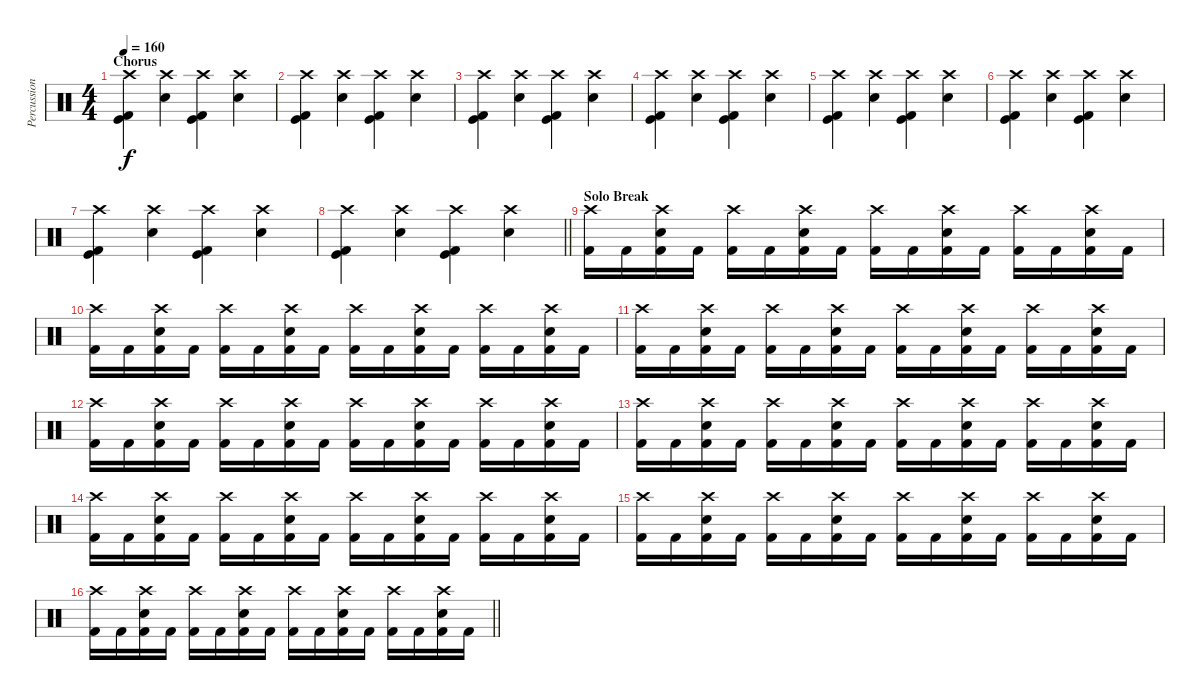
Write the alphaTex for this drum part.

\track ("Percussion" "Percussion") {instrument percussion}
\staff {score}
\articulation defaults
\ts (4 4)
\section ("" "Chorus")
\tempo 160
\clef neutral
\ks c
("Crash high (hit)" "Kick (hit)" "Kick (hit) 2").4{dy f} ("Crash high (hit)" "Snare (hit) 2").4 ("Crash high (hit)" "Kick (hit)" "Kick (hit) 2").4 ("Crash high (hit)" "Snare (hit) 2").4 |
("Crash high (hit)" "Kick (hit)" "Kick (hit) 2").4 ("Crash high (hit)" "Snare (hit) 2").4 ("Crash high (hit)" "Kick (hit)" "Kick (hit) 2").4 ("Crash high (hit)" "Snare (hit) 2").4 |
("Crash high (hit)" "Kick (hit)" "Kick (hit) 2").4 ("Crash high (hit)" "Snare (hit) 2").4 ("Crash high (hit)" "Kick (hit)" "Kick (hit) 2").4 ("Crash high (hit)" "Snare (hit) 2").4 |
("Crash high (hit)" "Kick (hit)" "Kick (hit) 2").4 ("Crash high (hit)" "Snare (hit) 2").4 ("Crash high (hit)" "Kick (hit)" "Kick (hit) 2").4 ("Crash high (hit)" "Snare (hit) 2").4 |
("Crash high (hit)" "Kick (hit)" "Kick (hit) 2").4 ("Crash high (hit)" "Snare (hit) 2").4 ("Crash high (hit)" "Kick (hit)" "Kick (hit) 2").4 ("Crash high (hit)" "Snare (hit) 2").4 |
("Crash high (hit)" "Kick (hit)" "Kick (hit) 2").4 ("Crash high (hit)" "Snare (hit) 2").4 ("Crash high (hit)" "Kick (hit)" "Kick (hit) 2").4 ("Crash high (hit)" "Snare (hit) 2").4 |
("Crash high (hit)" "Kick (hit)" "Kick (hit) 2").4 ("Crash high (hit)" "Snare (hit) 2").4 ("Crash high (hit)" "Kick (hit)" "Kick (hit) 2").4 ("Crash high (hit)" "Snare (hit) 2").4 |
\barLineRight lightlight
("Crash high (hit)" "Kick (hit)" "Kick (hit) 2").4 ("Crash high (hit)" "Snare (hit) 2").4 ("Crash high (hit)" "Kick (hit)" "Kick (hit) 2").4 ("Crash high (hit)" "Snare (hit) 2").4 |
\section ("" "Solo Break")
("Crash high (hit)" "Kick (hit) 2").16 "Kick (hit) 2".16 ("Crash high (hit)" "Snare (hit) 2" "Kick (hit) 2").16 "Kick (hit) 2".16 ("Crash high (hit)" "Kick (hit) 2").16 "Kick (hit) 2".16 ("Crash high (hit)" "Snare (hit) 2" "Kick (hit) 2").16 "Kick (hit) 2".16 ("Crash high (hit)" "Kick (hit) 2").16 "Kick (hit) 2".16 ("Crash high (hit)" "Snare (hit) 2" "Kick (hit) 2").16 "Kick (hit) 2".16 ("Crash high (hit)" "Kick (hit) 2").16 "Kick (hit) 2".16 ("Crash high (hit)" "Snare (hit) 2" "Kick (hit) 2").16 "Kick (hit) 2".16 |
("Crash high (hit)" "Kick (hit) 2").16 "Kick (hit) 2".16 ("Crash high (hit)" "Snare (hit) 2" "Kick (hit) 2").16 "Kick (hit) 2".16 ("Crash high (hit)" "Kick (hit) 2").16 "Kick (hit) 2".16 ("Crash high (hit)" "Snare (hit) 2" "Kick (hit) 2").16 "Kick (hit) 2".16 ("Crash high (hit)" "Kick (hit) 2").16 "Kick (hit) 2".16 ("Crash high (hit)" "Snare (hit) 2" "Kick (hit) 2").16 "Kick (hit) 2".16 ("Crash high (hit)" "Kick (hit) 2").16 "Kick (hit) 2".16 ("Crash high (hit)" "Snare (hit) 2" "Kick (hit) 2").16 "Kick (hit) 2".16 |
("Crash high (hit)" "Kick (hit) 2").16 "Kick (hit) 2".16 ("Crash high (hit)" "Snare (hit) 2" "Kick (hit) 2").16 "Kick (hit) 2".16 ("Crash high (hit)" "Kick (hit) 2").16 "Kick (hit) 2".16 ("Crash high (hit)" "Snare (hit) 2" "Kick (hit) 2").16 "Kick (hit) 2".16 ("Crash high (hit)" "Kick (hit) 2").16 "Kick (hit) 2".16 ("Crash high (hit)" "Snare (hit) 2" "Kick (hit) 2").16 "Kick (hit) 2".16 ("Crash high (hit)" "Kick (hit) 2").16 "Kick (hit) 2".16 ("Crash high (hit)" "Snare (hit) 2" "Kick (hit) 2").16 "Kick (hit) 2".16 |
("Crash high (hit)" "Kick (hit) 2").16 "Kick (hit) 2".16 ("Crash high (hit)" "Snare (hit) 2" "Kick (hit) 2").16 "Kick (hit) 2".16 ("Crash high (hit)" "Kick (hit) 2").16 "Kick (hit) 2".16 ("Crash high (hit)" "Snare (hit) 2" "Kick (hit) 2").16 "Kick (hit) 2".16 ("Crash high (hit)" "Kick (hit) 2").16 "Kick (hit) 2".16 ("Crash high (hit)" "Snare (hit) 2" "Kick (hit) 2").16 "Kick (hit) 2".16 ("Crash high (hit)" "Kick (hit) 2").16 "Kick (hit) 2".16 ("Crash high (hit)" "Snare (hit) 2" "Kick (hit) 2").16 "Kick (hit) 2".16 |
("Crash high (hit)" "Kick (hit) 2").16 "Kick (hit) 2".16 ("Crash high (hit)" "Snare (hit) 2" "Kick (hit) 2").16 "Kick (hit) 2".16 ("Crash high (hit)" "Kick (hit) 2").16 "Kick (hit) 2".16 ("Crash high (hit)" "Snare (hit) 2" "Kick (hit) 2").16 "Kick (hit) 2".16 ("Crash high (hit)" "Kick (hit) 2").16 "Kick (hit) 2".16 ("Crash high (hit)" "Snare (hit) 2" "Kick (hit) 2").16 "Kick (hit) 2".16 ("Crash high (hit)" "Kick (hit) 2").16 "Kick (hit) 2".16 ("Crash high (hit)" "Snare (hit) 2" "Kick (hit) 2").16 "Kick (hit) 2".16 |
("Crash high (hit)" "Kick (hit) 2").16 "Kick (hit) 2".16 ("Crash high (hit)" "Snare (hit) 2" "Kick (hit) 2").16 "Kick (hit) 2".16 ("Crash high (hit)" "Kick (hit) 2").16 "Kick (hit) 2".16 ("Crash high (hit)" "Snare (hit) 2" "Kick (hit) 2").16 "Kick (hit) 2".16 ("Crash high (hit)" "Kick (hit) 2").16 "Kick (hit) 2".16 ("Crash high (hit)" "Snare (hit) 2" "Kick (hit) 2").16 "Kick (hit) 2".16 ("Crash high (hit)" "Kick (hit) 2").16 "Kick (hit) 2".16 ("Crash high (hit)" "Snare (hit) 2" "Kick (hit) 2").16 "Kick (hit) 2".16 |
("Crash high (hit)" "Kick (hit) 2").16 "Kick (hit) 2".16 ("Crash high (hit)" "Snare (hit) 2" "Kick (hit) 2").16 "Kick (hit) 2".16 ("Crash high (hit)" "Kick (hit) 2").16 "Kick (hit) 2".16 ("Crash high (hit)" "Snare (hit) 2" "Kick (hit) 2").16 "Kick (hit) 2".16 ("Crash high (hit)" "Kick (hit) 2").16 "Kick (hit) 2".16 ("Crash high (hit)" "Snare (hit) 2" "Kick (hit) 2").16 "Kick (hit) 2".16 ("Crash high (hit)" "Kick (hit) 2").16 "Kick (hit) 2".16 ("Crash high (hit)" "Snare (hit) 2" "Kick (hit) 2").16 "Kick (hit) 2".16 |
\barLineRight lightlight
("Crash high (hit)" "Kick (hit) 2").16 "Kick (hit) 2".16 ("Crash high (hit)" "Snare (hit) 2" "Kick (hit) 2").16 "Kick (hit) 2".16 ("Crash high (hit)" "Kick (hit) 2").16 "Kick (hit) 2".16 ("Crash high (hit)" "Snare (hit) 2" "Kick (hit) 2").16 "Kick (hit) 2".16 ("Crash high (hit)" "Kick (hit) 2").16 "Kick (hit) 2".16 ("Crash high (hit)" "Snare (hit) 2" "Kick (hit) 2").16 "Kick (hit) 2".16 ("Crash high (hit)" "Kick (hit) 2").16 "Kick (hit) 2".16 ("Crash high (hit)" "Snare (hit) 2" "Kick (hit) 2").16 "Kick (hit) 2".16
